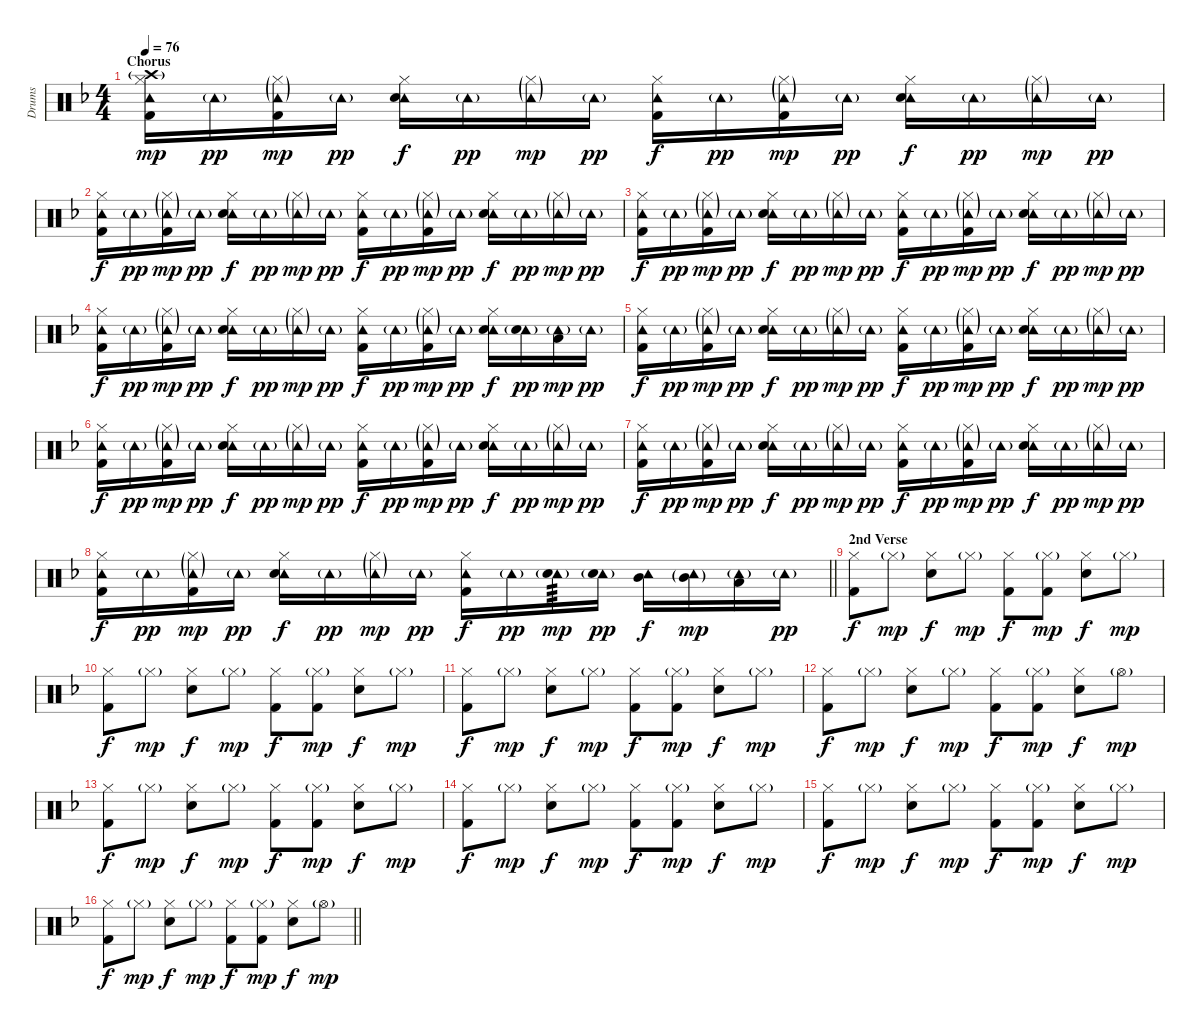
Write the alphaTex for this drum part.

\track ("Drums" "Drums") {instrument percussion}
\staff {score}
\articulation defaults
\ts (4 4)
\section ("" "Chorus")
\tempo 76
\clef neutral
\ks f
("Hi-Hat (closed)" "Tambourine (hit)" "Crash high (hit)"{g} "Kick (hit) 2").16{dy mp} "Tambourine (hit)"{g}.16{dy pp} ("Hi-Hat (closed)"{g} "Tambourine (hit)"{g} "Kick (hit) 2").16{dy mp} "Tambourine (hit)"{g}.16{dy pp} ("Hi-Hat (closed)" "Tambourine (hit)" "Snare (hit) 2").16{dy f} "Tambourine (hit)"{g}.16{dy pp} ("Hi-Hat (closed)"{g} "Tambourine (hit)"{g}).16{dy mp} "Tambourine (hit)"{g}.16{dy pp} ("Hi-Hat (closed)" "Tambourine (hit)" "Kick (hit) 2").16{dy f} "Tambourine (hit)"{g}.16{dy pp} ("Hi-Hat (closed)"{g} "Tambourine (hit)"{g} "Kick (hit) 2").16{dy mp} "Tambourine (hit)"{g}.16{dy pp} ("Hi-Hat (closed)" "Tambourine (hit)" "Snare (hit) 2").16{dy f} "Tambourine (hit)"{g}.16{dy pp} ("Hi-Hat (closed)"{g} "Tambourine (hit)"{g}).16{dy mp} "Tambourine (hit)"{g}.16{dy pp} |
("Hi-Hat (closed)" "Tambourine (hit)" "Kick (hit) 2").16{dy f} "Tambourine (hit)"{g}.16{dy pp} ("Hi-Hat (closed)"{g} "Tambourine (hit)"{g} "Kick (hit) 2").16{dy mp} "Tambourine (hit)"{g}.16{dy pp} ("Hi-Hat (closed)" "Tambourine (hit)" "Snare (hit) 2").16{dy f} "Tambourine (hit)"{g}.16{dy pp} ("Hi-Hat (closed)"{g} "Tambourine (hit)"{g}).16{dy mp} "Tambourine (hit)"{g}.16{dy pp} ("Hi-Hat (closed)" "Tambourine (hit)" "Kick (hit) 2").16{dy f} "Tambourine (hit)"{g}.16{dy pp} ("Hi-Hat (closed)"{g} "Tambourine (hit)"{g} "Kick (hit) 2").16{dy mp} "Tambourine (hit)"{g}.16{dy pp} ("Hi-Hat (closed)" "Tambourine (hit)" "Snare (hit) 2").16{dy f} "Tambourine (hit)"{g}.16{dy pp} ("Hi-Hat (closed)"{g} "Tambourine (hit)"{g}).16{dy mp} "Tambourine (hit)"{g}.16{dy pp} |
("Hi-Hat (closed)" "Tambourine (hit)" "Kick (hit) 2").16{dy f} "Tambourine (hit)"{g}.16{dy pp} ("Hi-Hat (closed)"{g} "Tambourine (hit)"{g} "Kick (hit) 2").16{dy mp} "Tambourine (hit)"{g}.16{dy pp} ("Hi-Hat (closed)" "Tambourine (hit)" "Snare (hit) 2").16{dy f} "Tambourine (hit)"{g}.16{dy pp} ("Hi-Hat (closed)"{g} "Tambourine (hit)"{g}).16{dy mp} "Tambourine (hit)"{g}.16{dy pp} ("Hi-Hat (closed)" "Tambourine (hit)" "Kick (hit) 2").16{dy f} "Tambourine (hit)"{g}.16{dy pp} ("Hi-Hat (closed)"{g} "Tambourine (hit)"{g} "Kick (hit) 2").16{dy mp} "Tambourine (hit)"{g}.16{dy pp} ("Hi-Hat (closed)" "Tambourine (hit)" "Snare (hit) 2").16{dy f} "Tambourine (hit)"{g}.16{dy pp} ("Hi-Hat (closed)"{g} "Tambourine (hit)"{g}).16{dy mp} "Tambourine (hit)"{g}.16{dy pp} |
("Hi-Hat (closed)" "Tambourine (hit)" "Kick (hit) 2").16{dy f} "Tambourine (hit)"{g}.16{dy pp} ("Hi-Hat (closed)"{g} "Tambourine (hit)"{g} "Kick (hit) 2").16{dy mp} "Tambourine (hit)"{g}.16{dy pp} ("Hi-Hat (closed)" "Tambourine (hit)" "Snare (hit) 2").16{dy f} "Tambourine (hit)"{g}.16{dy pp} ("Hi-Hat (closed)"{g} "Tambourine (hit)"{g}).16{dy mp} "Tambourine (hit)"{g}.16{dy pp} ("Hi-Hat (closed)" "Tambourine (hit)" "Kick (hit) 2").16{dy f} "Tambourine (hit)"{g}.16{dy pp} ("Hi-Hat (closed)"{g} "Tambourine (hit)"{g} "Kick (hit) 2").16{dy mp} "Tambourine (hit)"{g}.16{dy pp} ("Hi-Hat (closed)" "Tambourine (hit)" "Snare (hit) 2").16{dy f} ("Tambourine (hit)"{g} "Snare (hit) 2").16{dy pp} ("Tambourine (hit)"{g} "Low Tom (hit)").16{dy mp} "Tambourine (hit)"{g}.16{dy pp} |
("Hi-Hat (closed)" "Tambourine (hit)" "Kick (hit) 2").16{dy f} "Tambourine (hit)"{g}.16{dy pp} ("Hi-Hat (closed)"{g} "Tambourine (hit)"{g} "Kick (hit) 2").16{dy mp} "Tambourine (hit)"{g}.16{dy pp} ("Hi-Hat (closed)" "Tambourine (hit)" "Snare (hit) 2").16{dy f} "Tambourine (hit)"{g}.16{dy pp} ("Hi-Hat (closed)"{g} "Tambourine (hit)"{g}).16{dy mp} "Tambourine (hit)"{g}.16{dy pp} ("Hi-Hat (closed)" "Tambourine (hit)" "Kick (hit) 2").16{dy f} "Tambourine (hit)"{g}.16{dy pp} ("Hi-Hat (closed)"{g} "Tambourine (hit)"{g} "Kick (hit) 2").16{dy mp} "Tambourine (hit)"{g}.16{dy pp} ("Hi-Hat (closed)" "Tambourine (hit)" "Snare (hit) 2").16{dy f} "Tambourine (hit)"{g}.16{dy pp} ("Hi-Hat (closed)"{g} "Tambourine (hit)"{g}).16{dy mp} "Tambourine (hit)"{g}.16{dy pp} |
("Hi-Hat (closed)" "Tambourine (hit)" "Kick (hit) 2").16{dy f} "Tambourine (hit)"{g}.16{dy pp} ("Hi-Hat (closed)"{g} "Tambourine (hit)"{g} "Kick (hit) 2").16{dy mp} "Tambourine (hit)"{g}.16{dy pp} ("Hi-Hat (closed)" "Tambourine (hit)" "Snare (hit) 2").16{dy f} "Tambourine (hit)"{g}.16{dy pp} ("Hi-Hat (closed)"{g} "Tambourine (hit)"{g}).16{dy mp} "Tambourine (hit)"{g}.16{dy pp} ("Hi-Hat (closed)" "Tambourine (hit)" "Kick (hit) 2").16{dy f} "Tambourine (hit)"{g}.16{dy pp} ("Hi-Hat (closed)"{g} "Tambourine (hit)"{g} "Kick (hit) 2").16{dy mp} "Tambourine (hit)"{g}.16{dy pp} ("Hi-Hat (closed)" "Tambourine (hit)" "Snare (hit) 2").16{dy f} "Tambourine (hit)"{g}.16{dy pp} ("Hi-Hat (closed)"{g} "Tambourine (hit)"{g}).16{dy mp} "Tambourine (hit)"{g}.16{dy pp} |
("Hi-Hat (closed)" "Tambourine (hit)" "Kick (hit) 2").16{dy f} "Tambourine (hit)"{g}.16{dy pp} ("Hi-Hat (closed)"{g} "Tambourine (hit)"{g} "Kick (hit) 2").16{dy mp} "Tambourine (hit)"{g}.16{dy pp} ("Hi-Hat (closed)" "Tambourine (hit)" "Snare (hit) 2").16{dy f} "Tambourine (hit)"{g}.16{dy pp} ("Hi-Hat (closed)"{g} "Tambourine (hit)"{g}).16{dy mp} "Tambourine (hit)"{g}.16{dy pp} ("Hi-Hat (closed)" "Tambourine (hit)" "Kick (hit) 2").16{dy f} "Tambourine (hit)"{g}.16{dy pp} ("Hi-Hat (closed)"{g} "Tambourine (hit)"{g} "Kick (hit) 2").16{dy mp} "Tambourine (hit)"{g}.16{dy pp} ("Hi-Hat (closed)" "Tambourine (hit)" "Snare (hit) 2").16{dy f} "Tambourine (hit)"{g}.16{dy pp} ("Hi-Hat (closed)"{g} "Tambourine (hit)"{g}).16{dy mp} "Tambourine (hit)"{g}.16{dy pp} |
\barLineRight lightlight
("Hi-Hat (closed)" "Tambourine (hit)" "Kick (hit) 2").16{dy f} "Tambourine (hit)"{g}.16{dy pp} ("Hi-Hat (closed)"{g} "Tambourine (hit)"{g} "Kick (hit) 2").16{dy mp} "Tambourine (hit)"{g}.16{dy pp} ("Hi-Hat (closed)" "Tambourine (hit)" "Snare (hit) 2").16{dy f} "Tambourine (hit)"{g}.16{dy pp} ("Hi-Hat (closed)"{g} "Tambourine (hit)"{g}).16{dy mp} "Tambourine (hit)"{g}.16{dy pp} ("Hi-Hat (closed)" "Tambourine (hit)" "Kick (hit) 2").16{dy f} "Tambourine (hit)"{g}.16{dy pp} ("Tambourine (hit)"{g} "Snare (hit) 2"{g}).16{tp 3 dy mp} ("Tambourine (hit)"{g} "Snare (hit) 2").16{dy pp} ("Tambourine (hit)" "Mid Tom (hit)").16{dy f} ("Tambourine (hit)"{g} "Mid Tom (hit)"{g}).16{dy mp} ("Tambourine (hit)"{g} "Low Tom (hit)").16 "Tambourine (hit)"{g}.16{dy pp} |
\section ("" "2nd Verse")
("Hi-Hat (closed)" "Kick (hit) 2").8{dy f} "Hi-Hat (closed)"{g}.8{dy mp} ("Hi-Hat (closed)" "Snare (hit) 2").8{dy f} "Hi-Hat (closed)"{g}.8{dy mp} ("Hi-Hat (closed)" "Kick (hit) 2").8{dy f} ("Hi-Hat (closed)"{g} "Kick (hit) 2").8{dy mp} ("Hi-Hat (closed)" "Snare (hit) 2").8{dy f} "Hi-Hat (closed)"{g}.8{dy mp} |
("Hi-Hat (closed)" "Kick (hit) 2").8{dy f} "Hi-Hat (closed)"{g}.8{dy mp} ("Hi-Hat (closed)" "Snare (hit) 2").8{dy f} "Hi-Hat (closed)"{g}.8{dy mp} ("Hi-Hat (closed)" "Kick (hit) 2").8{dy f} ("Hi-Hat (closed)"{g} "Kick (hit) 2").8{dy mp} ("Hi-Hat (closed)" "Snare (hit) 2").8{dy f} "Hi-Hat (closed)"{g}.8{dy mp} |
("Hi-Hat (closed)" "Kick (hit) 2").8{dy f} "Hi-Hat (closed)"{g}.8{dy mp} ("Hi-Hat (closed)" "Snare (hit) 2").8{dy f} "Hi-Hat (closed)"{g}.8{dy mp} ("Hi-Hat (closed)" "Kick (hit) 2").8{dy f} ("Hi-Hat (closed)"{g} "Kick (hit) 2").8{dy mp} ("Hi-Hat (closed)" "Snare (hit) 2").8{dy f} "Hi-Hat (closed)"{g}.8{dy mp} |
("Hi-Hat (closed)" "Kick (hit) 2").8{dy f} "Hi-Hat (closed)"{g}.8{dy mp} ("Hi-Hat (closed)" "Snare (hit) 2").8{dy f} "Hi-Hat (closed)"{g}.8{dy mp} ("Hi-Hat (closed)" "Kick (hit) 2").8{dy f} ("Hi-Hat (closed)"{g} "Kick (hit) 2").8{dy mp} ("Hi-Hat (closed)" "Snare (hit) 2").8{dy f} "Hi-Hat (open)"{g}.8{dy mp} |
("Hi-Hat (closed)" "Kick (hit) 2").8{dy f} "Hi-Hat (closed)"{g}.8{dy mp} ("Hi-Hat (closed)" "Snare (hit) 2").8{dy f} "Hi-Hat (closed)"{g}.8{dy mp} ("Hi-Hat (closed)" "Kick (hit) 2").8{dy f} ("Hi-Hat (closed)"{g} "Kick (hit) 2").8{dy mp} ("Hi-Hat (closed)" "Snare (hit) 2").8{dy f} "Hi-Hat (closed)"{g}.8{dy mp} |
("Hi-Hat (closed)" "Kick (hit) 2").8{dy f} "Hi-Hat (closed)"{g}.8{dy mp} ("Hi-Hat (closed)" "Snare (hit) 2").8{dy f} "Hi-Hat (closed)"{g}.8{dy mp} ("Hi-Hat (closed)" "Kick (hit) 2").8{dy f} ("Hi-Hat (closed)"{g} "Kick (hit) 2").8{dy mp} ("Hi-Hat (closed)" "Snare (hit) 2").8{dy f} "Hi-Hat (closed)"{g}.8{dy mp} |
("Hi-Hat (closed)" "Kick (hit) 2").8{dy f} "Hi-Hat (closed)"{g}.8{dy mp} ("Hi-Hat (closed)" "Snare (hit) 2").8{dy f} "Hi-Hat (closed)"{g}.8{dy mp} ("Hi-Hat (closed)" "Kick (hit) 2").8{dy f} ("Hi-Hat (closed)"{g} "Kick (hit) 2").8{dy mp} ("Hi-Hat (closed)" "Snare (hit) 2").8{dy f} "Hi-Hat (closed)"{g}.8{dy mp} |
\barLineRight lightlight
("Hi-Hat (closed)" "Kick (hit) 2").8{dy f} "Hi-Hat (closed)"{g}.8{dy mp} ("Hi-Hat (closed)" "Snare (hit) 2").8{dy f} "Hi-Hat (closed)"{g}.8{dy mp} ("Hi-Hat (closed)" "Kick (hit) 2").8{dy f} ("Hi-Hat (closed)"{g} "Kick (hit) 2").8{dy mp} ("Hi-Hat (closed)" "Snare (hit) 2").8{dy f} "Hi-Hat (open)"{g}.8{dy mp}
